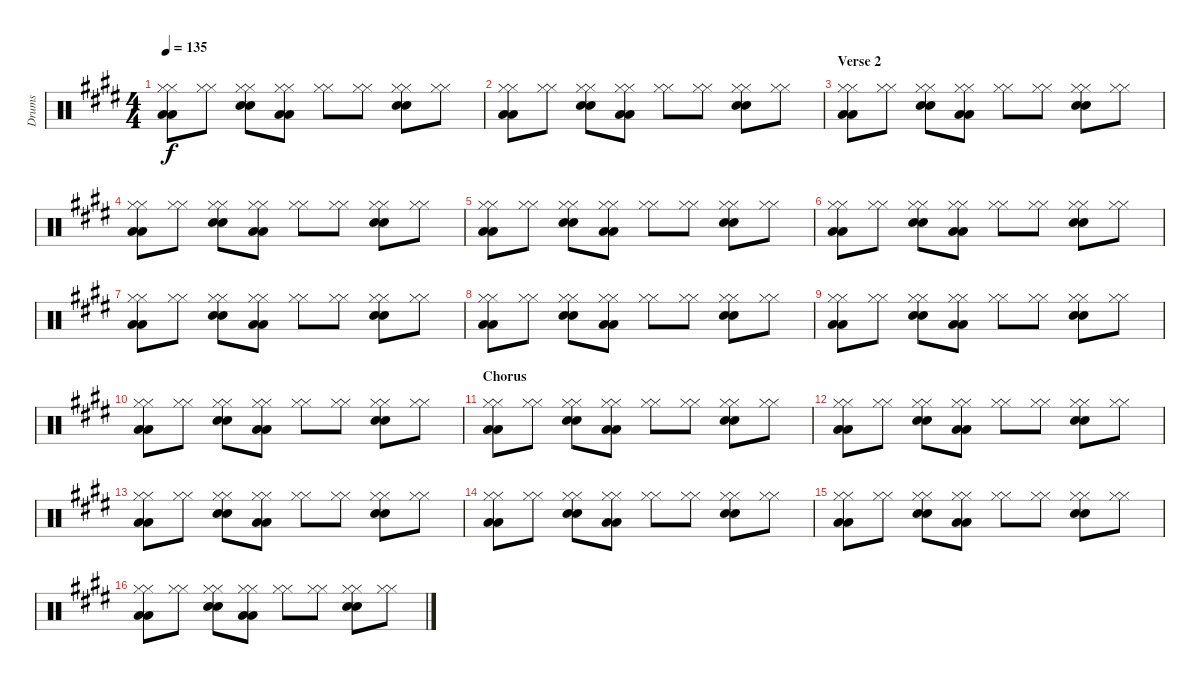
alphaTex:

\track ("Drums" "Drums") {instrument percussion}
\staff {score}
\articulation defaults
\ts (4 4)
\tempo 135
\clef neutral
\ks e
("Hi-Hat (closed)" "Hi-Hat (closed)" "Low Floor Tom (hit)" "Low Floor Tom (hit)").8{dy f} ("Hi-Hat (closed)" "Hi-Hat (closed)").8 ("Hi-Hat (closed)" "Hi-Hat (closed)" "Electric Snare (hit)" "Electric Snare (hit)").8 ("Hi-Hat (closed)" "Hi-Hat (closed)" "Low Floor Tom (hit)" "Low Floor Tom (hit)").8 ("Hi-Hat (closed)" "Hi-Hat (closed)").8 ("Hi-Hat (closed)" "Hi-Hat (closed)").8 ("Hi-Hat (closed)" "Hi-Hat (closed)" "Electric Snare (hit)" "Electric Snare (hit)").8 ("Hi-Hat (closed)" "Hi-Hat (closed)").8 |
("Hi-Hat (closed)" "Hi-Hat (closed)" "Low Floor Tom (hit)" "Low Floor Tom (hit)").8 ("Hi-Hat (closed)" "Hi-Hat (closed)").8 ("Hi-Hat (closed)" "Hi-Hat (closed)" "Electric Snare (hit)" "Electric Snare (hit)").8 ("Hi-Hat (closed)" "Hi-Hat (closed)" "Low Floor Tom (hit)" "Low Floor Tom (hit)").8 ("Hi-Hat (closed)" "Hi-Hat (closed)").8 ("Hi-Hat (closed)" "Hi-Hat (closed)").8 ("Hi-Hat (closed)" "Hi-Hat (closed)" "Electric Snare (hit)" "Electric Snare (hit)").8 ("Hi-Hat (closed)" "Hi-Hat (closed)").8 |
\section ("" "Verse 2")
("Hi-Hat (closed)" "Hi-Hat (closed)" "Low Floor Tom (hit)" "Low Floor Tom (hit)").8 ("Hi-Hat (closed)" "Hi-Hat (closed)").8 ("Hi-Hat (closed)" "Hi-Hat (closed)" "Electric Snare (hit)" "Electric Snare (hit)").8 ("Hi-Hat (closed)" "Hi-Hat (closed)" "Low Floor Tom (hit)" "Low Floor Tom (hit)").8 ("Hi-Hat (closed)" "Hi-Hat (closed)").8 ("Hi-Hat (closed)" "Hi-Hat (closed)").8 ("Hi-Hat (closed)" "Hi-Hat (closed)" "Electric Snare (hit)" "Electric Snare (hit)").8 ("Hi-Hat (closed)" "Hi-Hat (closed)").8 |
("Hi-Hat (closed)" "Hi-Hat (closed)" "Low Floor Tom (hit)" "Low Floor Tom (hit)").8 ("Hi-Hat (closed)" "Hi-Hat (closed)").8 ("Hi-Hat (closed)" "Hi-Hat (closed)" "Electric Snare (hit)" "Electric Snare (hit)").8 ("Hi-Hat (closed)" "Hi-Hat (closed)" "Low Floor Tom (hit)" "Low Floor Tom (hit)").8 ("Hi-Hat (closed)" "Hi-Hat (closed)").8 ("Hi-Hat (closed)" "Hi-Hat (closed)").8 ("Hi-Hat (closed)" "Hi-Hat (closed)" "Electric Snare (hit)" "Electric Snare (hit)").8 ("Hi-Hat (closed)" "Hi-Hat (closed)").8 |
("Hi-Hat (closed)" "Hi-Hat (closed)" "Low Floor Tom (hit)" "Low Floor Tom (hit)").8 ("Hi-Hat (closed)" "Hi-Hat (closed)").8 ("Hi-Hat (closed)" "Hi-Hat (closed)" "Electric Snare (hit)" "Electric Snare (hit)").8 ("Hi-Hat (closed)" "Hi-Hat (closed)" "Low Floor Tom (hit)" "Low Floor Tom (hit)").8 ("Hi-Hat (closed)" "Hi-Hat (closed)").8 ("Hi-Hat (closed)" "Hi-Hat (closed)").8 ("Hi-Hat (closed)" "Hi-Hat (closed)" "Electric Snare (hit)" "Electric Snare (hit)").8 ("Hi-Hat (closed)" "Hi-Hat (closed)").8 |
("Hi-Hat (closed)" "Hi-Hat (closed)" "Low Floor Tom (hit)" "Low Floor Tom (hit)").8 ("Hi-Hat (closed)" "Hi-Hat (closed)").8 ("Hi-Hat (closed)" "Hi-Hat (closed)" "Electric Snare (hit)" "Electric Snare (hit)").8 ("Hi-Hat (closed)" "Hi-Hat (closed)" "Low Floor Tom (hit)" "Low Floor Tom (hit)").8 ("Hi-Hat (closed)" "Hi-Hat (closed)").8 ("Hi-Hat (closed)" "Hi-Hat (closed)").8 ("Hi-Hat (closed)" "Hi-Hat (closed)" "Electric Snare (hit)" "Electric Snare (hit)").8 ("Hi-Hat (closed)" "Hi-Hat (closed)").8 |
("Hi-Hat (closed)" "Hi-Hat (closed)" "Low Floor Tom (hit)" "Low Floor Tom (hit)").8 ("Hi-Hat (closed)" "Hi-Hat (closed)").8 ("Hi-Hat (closed)" "Hi-Hat (closed)" "Electric Snare (hit)" "Electric Snare (hit)").8 ("Hi-Hat (closed)" "Hi-Hat (closed)" "Low Floor Tom (hit)" "Low Floor Tom (hit)").8 ("Hi-Hat (closed)" "Hi-Hat (closed)").8 ("Hi-Hat (closed)" "Hi-Hat (closed)").8 ("Hi-Hat (closed)" "Hi-Hat (closed)" "Electric Snare (hit)" "Electric Snare (hit)").8 ("Hi-Hat (closed)" "Hi-Hat (closed)").8 |
("Hi-Hat (closed)" "Hi-Hat (closed)" "Low Floor Tom (hit)" "Low Floor Tom (hit)").8 ("Hi-Hat (closed)" "Hi-Hat (closed)").8 ("Hi-Hat (closed)" "Hi-Hat (closed)" "Electric Snare (hit)" "Electric Snare (hit)").8 ("Hi-Hat (closed)" "Hi-Hat (closed)" "Low Floor Tom (hit)" "Low Floor Tom (hit)").8 ("Hi-Hat (closed)" "Hi-Hat (closed)").8 ("Hi-Hat (closed)" "Hi-Hat (closed)").8 ("Hi-Hat (closed)" "Hi-Hat (closed)" "Electric Snare (hit)" "Electric Snare (hit)").8 ("Hi-Hat (closed)" "Hi-Hat (closed)").8 |
("Hi-Hat (closed)" "Hi-Hat (closed)" "Low Floor Tom (hit)" "Low Floor Tom (hit)").8 ("Hi-Hat (closed)" "Hi-Hat (closed)").8 ("Hi-Hat (closed)" "Hi-Hat (closed)" "Electric Snare (hit)" "Electric Snare (hit)").8 ("Hi-Hat (closed)" "Hi-Hat (closed)" "Low Floor Tom (hit)" "Low Floor Tom (hit)").8 ("Hi-Hat (closed)" "Hi-Hat (closed)").8 ("Hi-Hat (closed)" "Hi-Hat (closed)").8 ("Hi-Hat (closed)" "Hi-Hat (closed)" "Electric Snare (hit)" "Electric Snare (hit)").8 ("Hi-Hat (closed)" "Hi-Hat (closed)").8 |
("Hi-Hat (closed)" "Hi-Hat (closed)" "Low Floor Tom (hit)" "Low Floor Tom (hit)").8 ("Hi-Hat (closed)" "Hi-Hat (closed)").8 ("Hi-Hat (closed)" "Hi-Hat (closed)" "Electric Snare (hit)" "Electric Snare (hit)").8 ("Hi-Hat (closed)" "Hi-Hat (closed)" "Low Floor Tom (hit)" "Low Floor Tom (hit)").8 ("Hi-Hat (closed)" "Hi-Hat (closed)").8 ("Hi-Hat (closed)" "Hi-Hat (closed)").8 ("Hi-Hat (closed)" "Hi-Hat (closed)" "Electric Snare (hit)" "Electric Snare (hit)").8 ("Hi-Hat (closed)" "Hi-Hat (closed)").8 |
\section ("" "Chorus")
("Hi-Hat (closed)" "Hi-Hat (closed)" "Low Floor Tom (hit)" "Low Floor Tom (hit)").8 ("Hi-Hat (closed)" "Hi-Hat (closed)").8 ("Hi-Hat (closed)" "Hi-Hat (closed)" "Electric Snare (hit)" "Electric Snare (hit)").8 ("Hi-Hat (closed)" "Hi-Hat (closed)" "Low Floor Tom (hit)" "Low Floor Tom (hit)").8 ("Hi-Hat (closed)" "Hi-Hat (closed)").8 ("Hi-Hat (closed)" "Hi-Hat (closed)").8 ("Hi-Hat (closed)" "Hi-Hat (closed)" "Electric Snare (hit)" "Electric Snare (hit)").8 ("Hi-Hat (closed)" "Hi-Hat (closed)").8 |
("Hi-Hat (closed)" "Hi-Hat (closed)" "Low Floor Tom (hit)" "Low Floor Tom (hit)").8 ("Hi-Hat (closed)" "Hi-Hat (closed)").8 ("Hi-Hat (closed)" "Hi-Hat (closed)" "Electric Snare (hit)" "Electric Snare (hit)").8 ("Hi-Hat (closed)" "Hi-Hat (closed)" "Low Floor Tom (hit)" "Low Floor Tom (hit)").8 ("Hi-Hat (closed)" "Hi-Hat (closed)").8 ("Hi-Hat (closed)" "Hi-Hat (closed)").8 ("Hi-Hat (closed)" "Hi-Hat (closed)" "Electric Snare (hit)" "Electric Snare (hit)").8 ("Hi-Hat (closed)" "Hi-Hat (closed)").8 |
("Hi-Hat (closed)" "Hi-Hat (closed)" "Low Floor Tom (hit)" "Low Floor Tom (hit)").8 ("Hi-Hat (closed)" "Hi-Hat (closed)").8 ("Hi-Hat (closed)" "Hi-Hat (closed)" "Electric Snare (hit)" "Electric Snare (hit)").8 ("Hi-Hat (closed)" "Hi-Hat (closed)" "Low Floor Tom (hit)" "Low Floor Tom (hit)").8 ("Hi-Hat (closed)" "Hi-Hat (closed)").8 ("Hi-Hat (closed)" "Hi-Hat (closed)").8 ("Hi-Hat (closed)" "Hi-Hat (closed)" "Electric Snare (hit)" "Electric Snare (hit)").8 ("Hi-Hat (closed)" "Hi-Hat (closed)").8 |
("Hi-Hat (closed)" "Hi-Hat (closed)" "Low Floor Tom (hit)" "Low Floor Tom (hit)").8 ("Hi-Hat (closed)" "Hi-Hat (closed)").8 ("Hi-Hat (closed)" "Hi-Hat (closed)" "Electric Snare (hit)" "Electric Snare (hit)").8 ("Hi-Hat (closed)" "Hi-Hat (closed)" "Low Floor Tom (hit)" "Low Floor Tom (hit)").8 ("Hi-Hat (closed)" "Hi-Hat (closed)").8 ("Hi-Hat (closed)" "Hi-Hat (closed)").8 ("Hi-Hat (closed)" "Hi-Hat (closed)" "Electric Snare (hit)" "Electric Snare (hit)").8 ("Hi-Hat (closed)" "Hi-Hat (closed)").8 |
("Hi-Hat (closed)" "Hi-Hat (closed)" "Low Floor Tom (hit)" "Low Floor Tom (hit)").8 ("Hi-Hat (closed)" "Hi-Hat (closed)").8 ("Hi-Hat (closed)" "Hi-Hat (closed)" "Electric Snare (hit)" "Electric Snare (hit)").8 ("Hi-Hat (closed)" "Hi-Hat (closed)" "Low Floor Tom (hit)" "Low Floor Tom (hit)").8 ("Hi-Hat (closed)" "Hi-Hat (closed)").8 ("Hi-Hat (closed)" "Hi-Hat (closed)").8 ("Hi-Hat (closed)" "Hi-Hat (closed)" "Electric Snare (hit)" "Electric Snare (hit)").8 ("Hi-Hat (closed)" "Hi-Hat (closed)").8 |
("Hi-Hat (closed)" "Hi-Hat (closed)" "Low Floor Tom (hit)" "Low Floor Tom (hit)").8 ("Hi-Hat (closed)" "Hi-Hat (closed)").8 ("Hi-Hat (closed)" "Hi-Hat (closed)" "Electric Snare (hit)" "Electric Snare (hit)").8 ("Hi-Hat (closed)" "Hi-Hat (closed)" "Low Floor Tom (hit)" "Low Floor Tom (hit)").8 ("Hi-Hat (closed)" "Hi-Hat (closed)").8 ("Hi-Hat (closed)" "Hi-Hat (closed)").8 ("Hi-Hat (closed)" "Hi-Hat (closed)" "Electric Snare (hit)" "Electric Snare (hit)").8 ("Hi-Hat (closed)" "Hi-Hat (closed)").8
